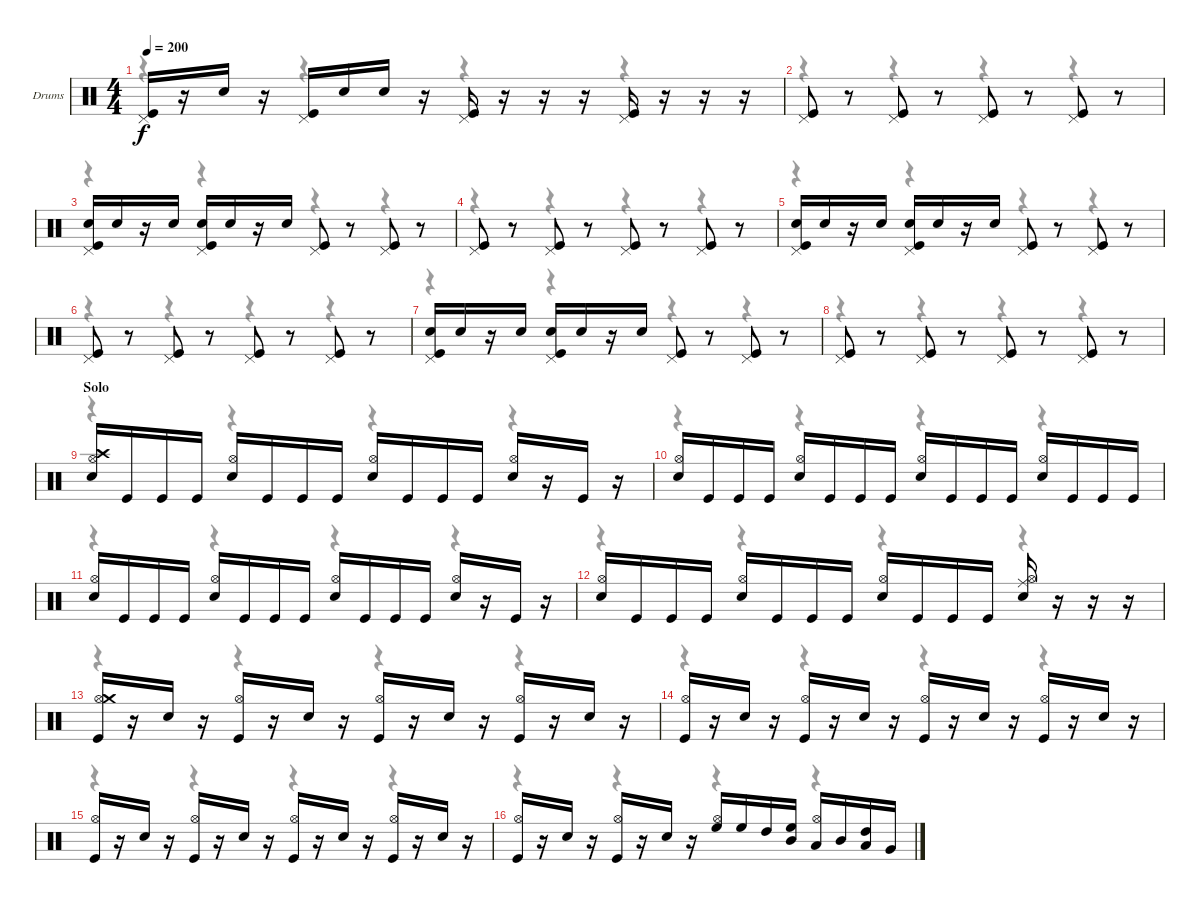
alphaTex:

\bracketExtendMode nobrackets
\firstSystemTrackNameOrientation horizontal
\otherSystemsTrackNameOrientation horizontal
\track ("Drumkit" "Drums") {instrument percussion}
\staff {score}
\articulation defaults
\voice
\ts (4 4)
\tempo 200
\clef neutral
\ks c
("Kick (hit)" "Pedal Hi-Hat (hit)").16{dy f} r.16 "Snare (hit) 2".16 r.16 ("Kick (hit)" "Pedal Hi-Hat (hit)").16 "Snare (hit) 2".16 "Snare (hit) 2".16 r.16 ("Kick (hit)" "Pedal Hi-Hat (hit)").16 r.16 r.16 r.16 ("Kick (hit)" "Pedal Hi-Hat (hit)").16 r.16 r.16 r.16 |
("Pedal Hi-Hat (hit)" "Kick (hit)").8 r.8 ("Pedal Hi-Hat (hit)" "Kick (hit)").8 r.8 ("Pedal Hi-Hat (hit)" "Kick (hit)").8 r.8 ("Pedal Hi-Hat (hit)" "Kick (hit)").8 r.8 |
("Pedal Hi-Hat (hit)" "Kick (hit)" "Snare (hit) 2").16 "Snare (hit) 2".16 r.16 "Snare (hit) 2".16 ("Pedal Hi-Hat (hit)" "Kick (hit)" "Snare (hit) 2").16 "Snare (hit) 2".16 r.16 "Snare (hit) 2".16 ("Pedal Hi-Hat (hit)" "Kick (hit)").8 r.8 ("Pedal Hi-Hat (hit)" "Kick (hit)").8 r.8 |
("Pedal Hi-Hat (hit)" "Kick (hit)").8 r.8 ("Pedal Hi-Hat (hit)" "Kick (hit)").8 r.8 ("Pedal Hi-Hat (hit)" "Kick (hit)").8 r.8 ("Pedal Hi-Hat (hit)" "Kick (hit)").8 r.8 |
("Pedal Hi-Hat (hit)" "Kick (hit)" "Snare (hit) 2").16 "Snare (hit) 2".16 r.16 "Snare (hit) 2".16 ("Pedal Hi-Hat (hit)" "Kick (hit)" "Snare (hit) 2").16 "Snare (hit) 2".16 r.16 "Snare (hit) 2".16 ("Pedal Hi-Hat (hit)" "Kick (hit)").8 r.8 ("Pedal Hi-Hat (hit)" "Kick (hit)").8 r.8 |
("Pedal Hi-Hat (hit)" "Kick (hit)").8 r.8 ("Pedal Hi-Hat (hit)" "Kick (hit)").8 r.8 ("Pedal Hi-Hat (hit)" "Kick (hit)").8 r.8 ("Pedal Hi-Hat (hit)" "Kick (hit)").8 r.8 |
("Pedal Hi-Hat (hit)" "Kick (hit)" "Snare (hit) 2").16 "Snare (hit) 2".16 r.16 "Snare (hit) 2".16 ("Pedal Hi-Hat (hit)" "Kick (hit)" "Snare (hit) 2").16 "Snare (hit) 2".16 r.16 "Snare (hit) 2".16 ("Pedal Hi-Hat (hit)" "Kick (hit)").8 r.8 ("Pedal Hi-Hat (hit)" "Kick (hit)").8 r.8 |
("Pedal Hi-Hat (hit)" "Kick (hit)").8 r.8 ("Pedal Hi-Hat (hit)" "Kick (hit)").8 r.8 ("Pedal Hi-Hat (hit)" "Kick (hit)").8 r.8 ("Pedal Hi-Hat (hit)" "Kick (hit)").8 r.8 |
\section ("" "Solo")
("Snare (hit) 2" "Hi-Hat (open)" "Crash high (hit)").16 "Kick (hit)".16 "Kick (hit)".16 "Kick (hit)".16 ("Snare (hit) 2" "Hi-Hat (open)").16 "Kick (hit)".16 "Kick (hit)".16 "Kick (hit)".16 ("Hi-Hat (open)" "Snare (hit) 2").16 "Kick (hit)".16 "Kick (hit)".16 "Kick (hit)".16 ("Hi-Hat (open)" "Snare (hit) 2").16 r.16 "Kick (hit)".16 r.16 |
("Snare (hit) 2" "Hi-Hat (open)").16 "Kick (hit)".16 "Kick (hit)".16 "Kick (hit)".16 ("Snare (hit) 2" "Hi-Hat (open)").16 "Kick (hit)".16 "Kick (hit)".16 "Kick (hit)".16 ("Snare (hit) 2" "Hi-Hat (open)").16 "Kick (hit)".16 "Kick (hit)".16 "Kick (hit)".16 ("Hi-Hat (open)" "Snare (hit) 2").16 "Kick (hit)".16 "Kick (hit)".16 "Kick (hit)".16 |
("Snare (hit) 2" "Hi-Hat (open)").16 "Kick (hit)".16 "Kick (hit)".16 "Kick (hit)".16 ("Snare (hit) 2" "Hi-Hat (open)").16 "Kick (hit)".16 "Kick (hit)".16 "Kick (hit)".16 ("Snare (hit) 2" "Hi-Hat (open)").16 "Kick (hit)".16 "Kick (hit)".16 "Kick (hit)".16 ("Snare (hit) 2" "Hi-Hat (open)").16 r.16 "Kick (hit)".16 r.16 |
("Snare (hit) 2" "Hi-Hat (open)").16 "Kick (hit)".16 "Kick (hit)".16 "Kick (hit)".16 ("Snare (hit) 2" "Hi-Hat (open)").16 "Kick (hit)".16 "Kick (hit)".16 "Kick (hit)".16 ("Snare (hit) 2" "Hi-Hat (open)").16 "Kick (hit)".16 "Kick (hit)".16 "Kick (hit)".16 ("Snare (hit) 2" "Hi-Hat (open)" "Ride (middle)").16 r.16 r.16 r.16 |
("Kick (hit)" "Hi-Hat (open)" "Crash medium (hit)").16 r.16 "Snare (hit) 2".16 r.16 ("Kick (hit)" "Hi-Hat (open)").16 r.16 "Snare (hit) 2".16 r.16 ("Kick (hit)" "Hi-Hat (open)").16 r.16 "Snare (hit) 2".16 r.16 ("Kick (hit)" "Hi-Hat (open)").16 r.16 "Snare (hit) 2".16 r.16 |
("Kick (hit)" "Hi-Hat (open)").16 r.16 "Snare (hit) 2".16 r.16 ("Kick (hit)" "Hi-Hat (open)").16 r.16 "Snare (hit) 2".16 r.16 ("Kick (hit)" "Hi-Hat (open)").16 r.16 "Snare (hit) 2".16 r.16 ("Kick (hit)" "Hi-Hat (open)").16 r.16 "Snare (hit) 2".16 r.16 |
("Kick (hit)" "Hi-Hat (open)").16 r.16 "Snare (hit) 2".16 r.16 ("Kick (hit)" "Hi-Hat (open)").16 r.16 "Snare (hit) 2".16 r.16 ("Kick (hit)" "Hi-Hat (open)").16 r.16 "Snare (hit) 2".16 r.16 ("Kick (hit)" "Hi-Hat (open)").16 r.16 "Snare (hit) 2".16 r.16 |
("Kick (hit)" "Hi-Hat (open)").16 r.16 "Snare (hit) 2".16 r.16 ("Kick (hit)" "Hi-Hat (open)").16 r.16 "Snare (hit) 2".16 r.16 ("High Floor Tom (hit)" "Hi-Hat (open)").16 "High Floor Tom (hit)".16 "High Tom (hit)".16 ("Mid Tom (hit)" "High Floor Tom (hit)").16 ("Low Tom (hit)" "Hi-Hat (open)").16 "Mid Tom (hit)".16 ("High Tom (hit)" "Low Tom (hit)").16 "Very Low Tom (hit)".16
\voice
\clef neutral
\ottava regular
\simile none
\ks c
r.4{dy mf} r.4 r.4 r.4 |
r.4 r.4 r.4 r.4 |
r.4 r.4 r.4 r.4 |
r.4 r.4 r.4 r.4 |
r.4 r.4 r.4 r.4 |
r.4 r.4 r.4 r.4 |
r.4 r.4 r.4 r.4 |
r.4 r.4 r.4 r.4 |
r.4 r.4 r.4 r.4 |
r.4 r.4 r.4 r.4 |
r.4 r.4 r.4 r.4 |
r.4 r.4 r.4 r.4 |
r.4 r.4 r.4 r.4 |
r.4 r.4 r.4 r.4 |
r.4 r.4 r.4 r.4 |
r.4 r.4 r.4 r.4
